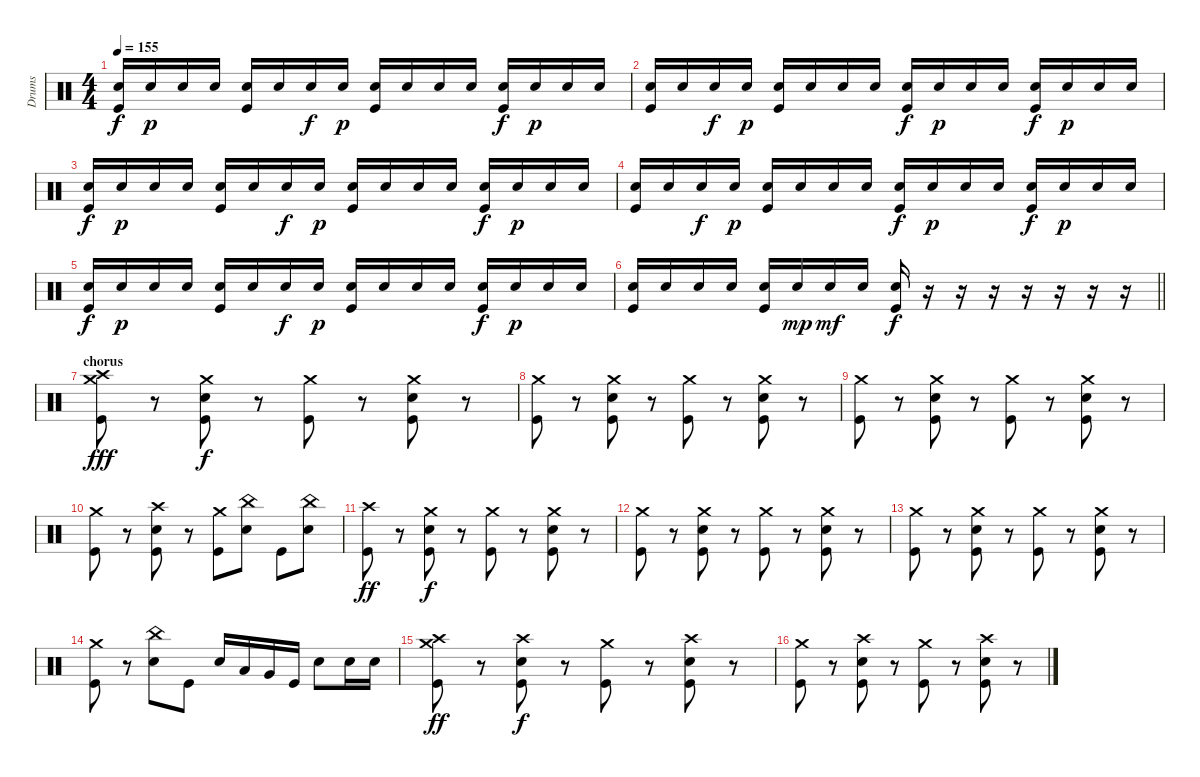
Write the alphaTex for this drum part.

\track ("Drums" "Drums") {instrument percussion}
\staff {score}
\articulation defaults
\ts (4 4)
\tempo 155
\clef neutral
\ks c
("Electric Snare (hit)" "Kick (hit)").16{dy f} "Electric Snare (hit)".16{dy p} "Electric Snare (hit)".16 "Electric Snare (hit)".16 ("Electric Snare (hit)" "Kick (hit)").16 "Electric Snare (hit)".16 "Electric Snare (hit)".16{dy f} "Electric Snare (hit)".16{dy p} ("Electric Snare (hit)" "Kick (hit)").16 "Electric Snare (hit)".16 "Electric Snare (hit)".16 "Electric Snare (hit)".16 ("Electric Snare (hit)" "Kick (hit)").16{dy f} "Electric Snare (hit)".16{dy p} "Electric Snare (hit)".16 "Electric Snare (hit)".16 |
("Electric Snare (hit)" "Kick (hit)").16 "Electric Snare (hit)".16 "Electric Snare (hit)".16{dy f} "Electric Snare (hit)".16{dy p} ("Electric Snare (hit)" "Kick (hit)").16 "Electric Snare (hit)".16 "Electric Snare (hit)".16 "Electric Snare (hit)".16 ("Electric Snare (hit)" "Kick (hit)").16{dy f} "Electric Snare (hit)".16{dy p} "Electric Snare (hit)".16 "Electric Snare (hit)".16 ("Electric Snare (hit)" "Kick (hit)").16{dy f} "Electric Snare (hit)".16{dy p} "Electric Snare (hit)".16 "Electric Snare (hit)".16 |
("Electric Snare (hit)" "Kick (hit)").16{dy f} "Electric Snare (hit)".16{dy p} "Electric Snare (hit)".16 "Electric Snare (hit)".16 ("Electric Snare (hit)" "Kick (hit)").16 "Electric Snare (hit)".16 "Electric Snare (hit)".16{dy f} "Electric Snare (hit)".16{dy p} ("Electric Snare (hit)" "Kick (hit)").16 "Electric Snare (hit)".16 "Electric Snare (hit)".16 "Electric Snare (hit)".16 ("Electric Snare (hit)" "Kick (hit)").16{dy f} "Electric Snare (hit)".16{dy p} "Electric Snare (hit)".16 "Electric Snare (hit)".16 |
("Electric Snare (hit)" "Kick (hit)").16 "Electric Snare (hit)".16 "Electric Snare (hit)".16{dy f} "Electric Snare (hit)".16{dy p} ("Electric Snare (hit)" "Kick (hit)").16 "Electric Snare (hit)".16 "Electric Snare (hit)".16 "Electric Snare (hit)".16 ("Electric Snare (hit)" "Kick (hit)").16{dy f} "Electric Snare (hit)".16{dy p} "Electric Snare (hit)".16 "Electric Snare (hit)".16 ("Electric Snare (hit)" "Kick (hit)").16{dy f} "Electric Snare (hit)".16{dy p} "Electric Snare (hit)".16 "Electric Snare (hit)".16 |
("Electric Snare (hit)" "Kick (hit)").16{dy f} "Electric Snare (hit)".16{dy p} "Electric Snare (hit)".16 "Electric Snare (hit)".16 ("Electric Snare (hit)" "Kick (hit)").16 "Electric Snare (hit)".16 "Electric Snare (hit)".16{dy f} "Electric Snare (hit)".16{dy p} ("Electric Snare (hit)" "Kick (hit)").16 "Electric Snare (hit)".16 "Electric Snare (hit)".16 "Electric Snare (hit)".16 ("Electric Snare (hit)" "Kick (hit)").16{dy f} "Electric Snare (hit)".16{dy p} "Electric Snare (hit)".16 "Electric Snare (hit)".16 |
\barLineRight lightlight
("Electric Snare (hit)" "Kick (hit)").16 "Electric Snare (hit)".16 "Electric Snare (hit)".16 "Electric Snare (hit)".16 ("Electric Snare (hit)" "Kick (hit)").16 "Electric Snare (hit)".16{dy mp} "Electric Snare (hit)".16{dy mf} "Electric Snare (hit)".16 ("Electric Snare (hit)" "Kick (hit)").16{dy f} r.16 r.16 r.16 r.16 r.16 r.16 r.16 |
\section ("" "chorus")
("Crash high (hit)" "Crash medium (hit)" "Kick (hit)").8{dy fff} r.8 ("Crash medium (hit)" "Electric Snare (hit)" "Kick (hit)").8{dy f} r.8 ("Crash medium (hit)" "Kick (hit)").8 r.8 ("Crash medium (hit)" "Electric Snare (hit)" "Kick (hit)").8 r.8 |
("Crash medium (hit)" "Kick (hit)").8 r.8 ("Crash medium (hit)" "Electric Snare (hit)" "Kick (hit)").8 r.8 ("Crash medium (hit)" "Kick (hit)").8 r.8 ("Crash medium (hit)" "Electric Snare (hit)" "Kick (hit)").8 r.8 |
("Crash medium (hit)" "Kick (hit)").8 r.8 ("Crash medium (hit)" "Electric Snare (hit)" "Kick (hit)").8 r.8 ("Crash medium (hit)" "Kick (hit)").8 r.8 ("Crash medium (hit)" "Electric Snare (hit)" "Kick (hit)").8 r.8 |
("Crash medium (hit)" "Kick (hit)").8 r.8 ("Crash high (hit)" "Electric Snare (hit)" "Kick (hit)").8 r.8 ("Crash medium (hit)" "Kick (hit)").8 ("China (hit)" "Electric Snare (hit)").8 "Kick (hit)".8 ("China (hit)" "Electric Snare (hit)").8 |
("Crash high (hit)" "Kick (hit)").8{dy ff} r.8 ("Crash medium (hit)" "Electric Snare (hit)" "Kick (hit)").8{dy f} r.8 ("Crash medium (hit)" "Kick (hit)").8 r.8 ("Crash medium (hit)" "Electric Snare (hit)" "Kick (hit)").8 r.8 |
("Crash medium (hit)" "Kick (hit)").8 r.8 ("Crash medium (hit)" "Electric Snare (hit)" "Kick (hit)").8 r.8 ("Crash medium (hit)" "Kick (hit)").8 r.8 ("Crash medium (hit)" "Electric Snare (hit)" "Kick (hit)").8 r.8 |
("Crash medium (hit)" "Kick (hit)").8 r.8 ("Crash medium (hit)" "Electric Snare (hit)" "Kick (hit)").8 r.8 ("Crash medium (hit)" "Kick (hit)").8 r.8 ("Crash medium (hit)" "Electric Snare (hit)" "Kick (hit)").8 r.8 |
("Crash medium (hit)" "Kick (hit)").8 r.8 ("China (hit)" "Electric Snare (hit)").8 "Kick (hit)".8 "Electric Snare (hit)".16 "Low Tom (hit)".16 "Very Low Tom (hit)".16 "Kick (hit)".16 "Electric Snare (hit)".8 "Electric Snare (hit)".16 "Electric Snare (hit)".16 |
("Crash high (hit)" "Crash medium (hit)" "Kick (hit)").8{dy ff} r.8 ("Crash high (hit)" "Electric Snare (hit)" "Kick (hit)").8{dy f} r.8 ("Crash medium (hit)" "Kick (hit)").8 r.8 ("Crash high (hit)" "Electric Snare (hit)" "Kick (hit)").8 r.8 |
("Crash medium (hit)" "Kick (hit)").8 r.8 ("Crash high (hit)" "Electric Snare (hit)" "Kick (hit)").8 r.8 ("Crash medium (hit)" "Kick (hit)").8 r.8 ("Crash high (hit)" "Electric Snare (hit)" "Kick (hit)").8 r.8
